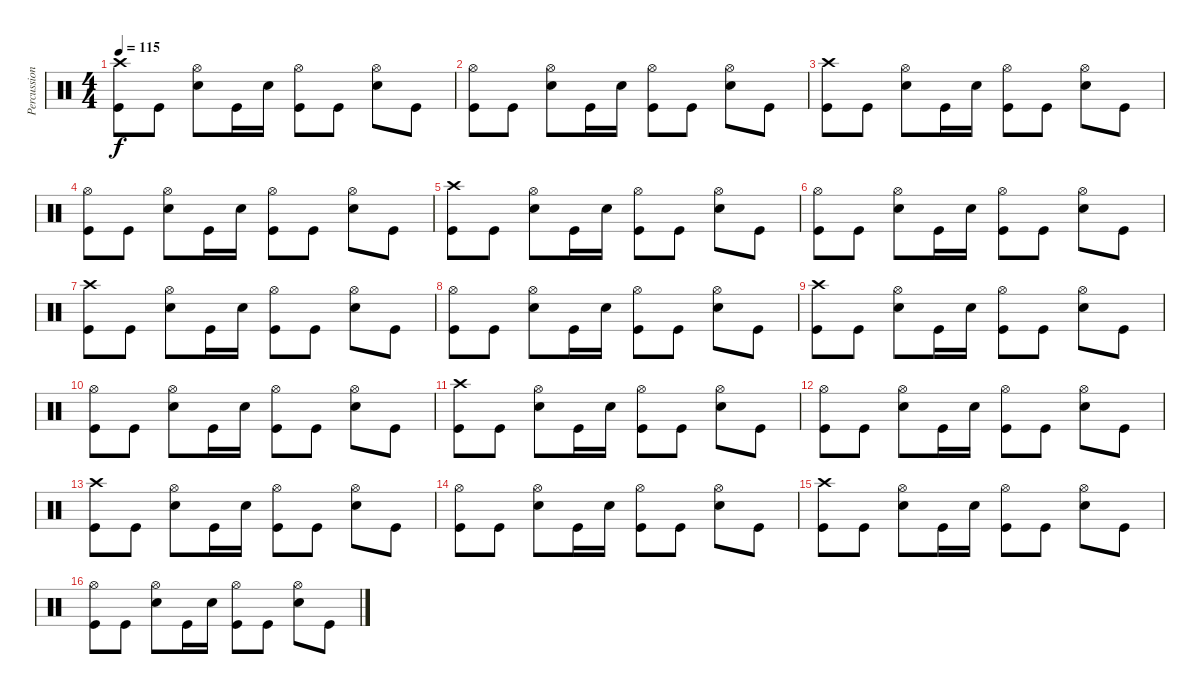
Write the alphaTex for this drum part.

\track ("Percussion" "Percussion") {instrument percussion}
\staff {score}
\articulation defaults
\ts (4 4)
\tempo 115
\clef neutral
\ks c
("Crash high (hit)" "Kick (hit)").8{dy f} "Kick (hit)".8 ("Hi-Hat (open)" "Electric Snare (hit)").8 "Kick (hit)".16 "Electric Snare (hit)".16 ("Hi-Hat (open)" "Kick (hit)").8 "Kick (hit)".8 ("Hi-Hat (open)" "Electric Snare (hit)").8 "Kick (hit)".8 |
("Hi-Hat (open)" "Kick (hit)").8 "Kick (hit)".8 ("Hi-Hat (open)" "Electric Snare (hit)").8 "Kick (hit)".16 "Electric Snare (hit)".16 ("Hi-Hat (open)" "Kick (hit)").8 "Kick (hit)".8 ("Hi-Hat (open)" "Electric Snare (hit)").8 "Kick (hit)".8 |
("Crash high (hit)" "Kick (hit)").8 "Kick (hit)".8 ("Hi-Hat (open)" "Electric Snare (hit)").8 "Kick (hit)".16 "Electric Snare (hit)".16 ("Hi-Hat (open)" "Kick (hit)").8 "Kick (hit)".8 ("Hi-Hat (open)" "Electric Snare (hit)").8 "Kick (hit)".8 |
("Hi-Hat (open)" "Kick (hit)").8 "Kick (hit)".8 ("Hi-Hat (open)" "Electric Snare (hit)").8 "Kick (hit)".16 "Electric Snare (hit)".16 ("Hi-Hat (open)" "Kick (hit)").8 "Kick (hit)".8 ("Hi-Hat (open)" "Electric Snare (hit)").8 "Kick (hit)".8 |
("Crash high (hit)" "Kick (hit)").8 "Kick (hit)".8 ("Hi-Hat (open)" "Electric Snare (hit)").8 "Kick (hit)".16 "Electric Snare (hit)".16 ("Hi-Hat (open)" "Kick (hit)").8 "Kick (hit)".8 ("Hi-Hat (open)" "Electric Snare (hit)").8 "Kick (hit)".8 |
("Hi-Hat (open)" "Kick (hit)").8 "Kick (hit)".8 ("Hi-Hat (open)" "Electric Snare (hit)").8 "Kick (hit)".16 "Electric Snare (hit)".16 ("Hi-Hat (open)" "Kick (hit)").8 "Kick (hit)".8 ("Hi-Hat (open)" "Electric Snare (hit)").8 "Kick (hit)".8 |
("Crash high (hit)" "Kick (hit)").8 "Kick (hit)".8 ("Hi-Hat (open)" "Electric Snare (hit)").8 "Kick (hit)".16 "Electric Snare (hit)".16 ("Hi-Hat (open)" "Kick (hit)").8 "Kick (hit)".8 ("Hi-Hat (open)" "Electric Snare (hit)").8 "Kick (hit)".8 |
("Hi-Hat (open)" "Kick (hit)").8 "Kick (hit)".8 ("Hi-Hat (open)" "Electric Snare (hit)").8 "Kick (hit)".16 "Electric Snare (hit)".16 ("Hi-Hat (open)" "Kick (hit)").8 "Kick (hit)".8 ("Hi-Hat (open)" "Electric Snare (hit)").8 "Kick (hit)".8 |
("Crash high (hit)" "Kick (hit)").8 "Kick (hit)".8 ("Hi-Hat (open)" "Electric Snare (hit)").8 "Kick (hit)".16 "Electric Snare (hit)".16 ("Hi-Hat (open)" "Kick (hit)").8 "Kick (hit)".8 ("Hi-Hat (open)" "Electric Snare (hit)").8 "Kick (hit)".8 |
("Hi-Hat (open)" "Kick (hit)").8 "Kick (hit)".8 ("Hi-Hat (open)" "Electric Snare (hit)").8 "Kick (hit)".16 "Electric Snare (hit)".16 ("Hi-Hat (open)" "Kick (hit)").8 "Kick (hit)".8 ("Hi-Hat (open)" "Electric Snare (hit)").8 "Kick (hit)".8 |
("Crash high (hit)" "Kick (hit)").8 "Kick (hit)".8 ("Hi-Hat (open)" "Electric Snare (hit)").8 "Kick (hit)".16 "Electric Snare (hit)".16 ("Hi-Hat (open)" "Kick (hit)").8 "Kick (hit)".8 ("Hi-Hat (open)" "Electric Snare (hit)").8 "Kick (hit)".8 |
("Hi-Hat (open)" "Kick (hit)").8 "Kick (hit)".8 ("Hi-Hat (open)" "Electric Snare (hit)").8 "Kick (hit)".16 "Electric Snare (hit)".16 ("Hi-Hat (open)" "Kick (hit)").8 "Kick (hit)".8 ("Hi-Hat (open)" "Electric Snare (hit)").8 "Kick (hit)".8 |
("Crash high (hit)" "Kick (hit)").8 "Kick (hit)".8 ("Hi-Hat (open)" "Electric Snare (hit)").8 "Kick (hit)".16 "Electric Snare (hit)".16 ("Hi-Hat (open)" "Kick (hit)").8 "Kick (hit)".8 ("Hi-Hat (open)" "Electric Snare (hit)").8 "Kick (hit)".8 |
("Hi-Hat (open)" "Kick (hit)").8 "Kick (hit)".8 ("Hi-Hat (open)" "Electric Snare (hit)").8 "Kick (hit)".16 "Electric Snare (hit)".16 ("Hi-Hat (open)" "Kick (hit)").8 "Kick (hit)".8 ("Hi-Hat (open)" "Electric Snare (hit)").8 "Kick (hit)".8 |
("Crash high (hit)" "Kick (hit)").8 "Kick (hit)".8 ("Hi-Hat (open)" "Electric Snare (hit)").8 "Kick (hit)".16 "Electric Snare (hit)".16 ("Hi-Hat (open)" "Kick (hit)").8 "Kick (hit)".8 ("Hi-Hat (open)" "Electric Snare (hit)").8 "Kick (hit)".8 |
("Hi-Hat (open)" "Kick (hit)").8 "Kick (hit)".8 ("Hi-Hat (open)" "Electric Snare (hit)").8 "Kick (hit)".16 "Electric Snare (hit)".16 ("Hi-Hat (open)" "Kick (hit)").8 "Kick (hit)".8 ("Hi-Hat (open)" "Electric Snare (hit)").8 "Kick (hit)".8
